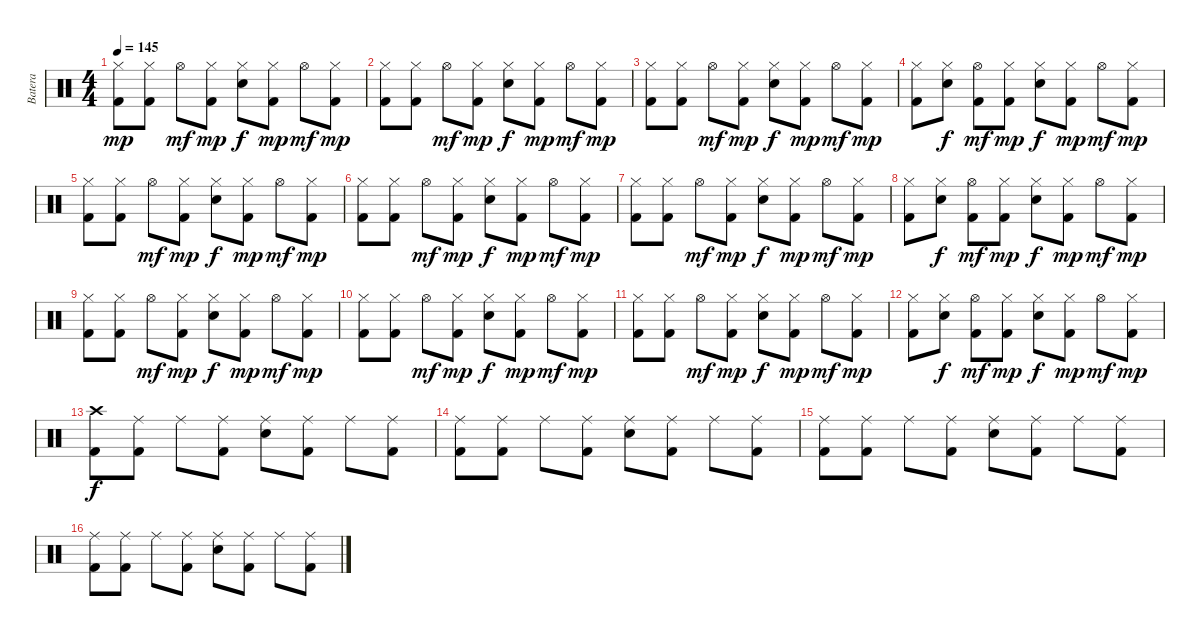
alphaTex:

\track ("Batera" "Batera") {instrument percussion}
\staff {score}
\articulation defaults
\ts (4 4)
\tempo 145
\clef neutral
\ks c
("Hi-Hat (closed)" "Kick (hit) 2").8{dy mp} ("Hi-Hat (closed)" "Kick (hit) 2").8 "Hi-Hat (open)".8{dy mf} ("Hi-Hat (closed)" "Kick (hit) 2").8{dy mp} ("Hi-Hat (closed)" "Electric Snare (hit)").8{dy f} ("Hi-Hat (closed)" "Kick (hit) 2").8{dy mp} "Hi-Hat (open)".8{dy mf} ("Hi-Hat (closed)" "Kick (hit) 2").8{dy mp} |
("Hi-Hat (closed)" "Kick (hit) 2").8 ("Hi-Hat (closed)" "Kick (hit) 2").8 "Hi-Hat (open)".8{dy mf} ("Hi-Hat (closed)" "Kick (hit) 2").8{dy mp} ("Hi-Hat (closed)" "Electric Snare (hit)").8{dy f} ("Hi-Hat (closed)" "Kick (hit) 2").8{dy mp} "Hi-Hat (open)".8{dy mf} ("Hi-Hat (closed)" "Kick (hit) 2").8{dy mp} |
("Hi-Hat (closed)" "Kick (hit) 2").8 ("Hi-Hat (closed)" "Kick (hit) 2").8 "Hi-Hat (open)".8{dy mf} ("Hi-Hat (closed)" "Kick (hit) 2").8{dy mp} ("Hi-Hat (closed)" "Electric Snare (hit)").8{dy f} ("Hi-Hat (closed)" "Kick (hit) 2").8{dy mp} "Hi-Hat (open)".8{dy mf} ("Hi-Hat (closed)" "Kick (hit) 2").8{dy mp} |
("Hi-Hat (closed)" "Kick (hit) 2").8 ("Hi-Hat (closed)" "Electric Snare (hit)").8{dy f} ("Hi-Hat (open)" "Kick (hit) 2").8{dy mf} ("Hi-Hat (closed)" "Kick (hit) 2").8{dy mp} ("Hi-Hat (closed)" "Electric Snare (hit)").8{dy f} ("Hi-Hat (closed)" "Kick (hit) 2").8{dy mp} "Hi-Hat (open)".8{dy mf} ("Hi-Hat (closed)" "Kick (hit) 2").8{dy mp} |
("Hi-Hat (closed)" "Kick (hit) 2").8 ("Hi-Hat (closed)" "Kick (hit) 2").8 "Hi-Hat (open)".8{dy mf} ("Hi-Hat (closed)" "Kick (hit) 2").8{dy mp} ("Hi-Hat (closed)" "Electric Snare (hit)").8{dy f} ("Hi-Hat (closed)" "Kick (hit) 2").8{dy mp} "Hi-Hat (open)".8{dy mf} ("Hi-Hat (closed)" "Kick (hit) 2").8{dy mp} |
("Hi-Hat (closed)" "Kick (hit) 2").8 ("Hi-Hat (closed)" "Kick (hit) 2").8 "Hi-Hat (open)".8{dy mf} ("Hi-Hat (closed)" "Kick (hit) 2").8{dy mp} ("Hi-Hat (closed)" "Electric Snare (hit)").8{dy f} ("Hi-Hat (closed)" "Kick (hit) 2").8{dy mp} "Hi-Hat (open)".8{dy mf} ("Hi-Hat (closed)" "Kick (hit) 2").8{dy mp} |
("Hi-Hat (closed)" "Kick (hit) 2").8 ("Hi-Hat (closed)" "Kick (hit) 2").8 "Hi-Hat (open)".8{dy mf} ("Hi-Hat (closed)" "Kick (hit) 2").8{dy mp} ("Hi-Hat (closed)" "Electric Snare (hit)").8{dy f} ("Hi-Hat (closed)" "Kick (hit) 2").8{dy mp} "Hi-Hat (open)".8{dy mf} ("Hi-Hat (closed)" "Kick (hit) 2").8{dy mp} |
("Hi-Hat (closed)" "Kick (hit) 2").8 ("Hi-Hat (closed)" "Electric Snare (hit)").8{dy f} ("Hi-Hat (open)" "Kick (hit) 2").8{dy mf} ("Hi-Hat (closed)" "Kick (hit) 2").8{dy mp} ("Hi-Hat (closed)" "Electric Snare (hit)").8{dy f} ("Hi-Hat (closed)" "Kick (hit) 2").8{dy mp} "Hi-Hat (open)".8{dy mf} ("Hi-Hat (closed)" "Kick (hit) 2").8{dy mp} |
("Hi-Hat (closed)" "Kick (hit) 2").8 ("Hi-Hat (closed)" "Kick (hit) 2").8 "Hi-Hat (open)".8{dy mf} ("Hi-Hat (closed)" "Kick (hit) 2").8{dy mp} ("Hi-Hat (closed)" "Electric Snare (hit)").8{dy f} ("Hi-Hat (closed)" "Kick (hit) 2").8{dy mp} "Hi-Hat (open)".8{dy mf} ("Hi-Hat (closed)" "Kick (hit) 2").8{dy mp} |
("Hi-Hat (closed)" "Kick (hit) 2").8 ("Hi-Hat (closed)" "Kick (hit) 2").8 "Hi-Hat (open)".8{dy mf} ("Hi-Hat (closed)" "Kick (hit) 2").8{dy mp} ("Hi-Hat (closed)" "Electric Snare (hit)").8{dy f} ("Hi-Hat (closed)" "Kick (hit) 2").8{dy mp} "Hi-Hat (open)".8{dy mf} ("Hi-Hat (closed)" "Kick (hit) 2").8{dy mp} |
("Hi-Hat (closed)" "Kick (hit) 2").8 ("Hi-Hat (closed)" "Kick (hit) 2").8 "Hi-Hat (open)".8{dy mf} ("Hi-Hat (closed)" "Kick (hit) 2").8{dy mp} ("Hi-Hat (closed)" "Electric Snare (hit)").8{dy f} ("Hi-Hat (closed)" "Kick (hit) 2").8{dy mp} "Hi-Hat (open)".8{dy mf} ("Hi-Hat (closed)" "Kick (hit) 2").8{dy mp} |
("Hi-Hat (closed)" "Kick (hit) 2").8 ("Hi-Hat (closed)" "Electric Snare (hit)").8{dy f} ("Hi-Hat (open)" "Kick (hit) 2").8{dy mf} ("Hi-Hat (closed)" "Kick (hit) 2").8{dy mp} ("Hi-Hat (closed)" "Electric Snare (hit)").8{dy f} ("Hi-Hat (closed)" "Kick (hit) 2").8{dy mp} "Hi-Hat (open)".8{dy mf} ("Hi-Hat (closed)" "Kick (hit) 2").8{dy mp} |
("Crash high (hit)" "Kick (hit) 2").8{dy f} ("Ride (middle)" "Kick (hit) 2").8 "Ride (middle)".8 ("Ride (middle)" "Kick (hit) 2").8 ("Ride (middle)" "Electric Snare (hit)").8 ("Ride (middle)" "Kick (hit) 2").8 "Ride (middle)".8 ("Ride (middle)" "Kick (hit) 2").8 |
("Ride (middle)" "Kick (hit) 2").8 ("Ride (middle)" "Kick (hit) 2").8 "Ride (middle)".8 ("Ride (middle)" "Kick (hit) 2").8 ("Ride (middle)" "Electric Snare (hit)").8 ("Ride (middle)" "Kick (hit) 2").8 "Ride (middle)".8 ("Ride (middle)" "Kick (hit) 2").8 |
("Ride (middle)" "Kick (hit) 2").8 ("Ride (middle)" "Kick (hit) 2").8 "Ride (middle)".8 ("Ride (middle)" "Kick (hit) 2").8 ("Ride (middle)" "Electric Snare (hit)").8 ("Ride (middle)" "Kick (hit) 2").8 "Ride (middle)".8 ("Ride (middle)" "Kick (hit) 2").8 |
("Ride (middle)" "Kick (hit) 2").8 ("Ride (middle)" "Kick (hit) 2").8 "Ride (middle)".8 ("Ride (middle)" "Kick (hit) 2").8 ("Ride (middle)" "Electric Snare (hit)").8 ("Ride (middle)" "Kick (hit) 2").8 "Ride (middle)".8 ("Ride (middle)" "Kick (hit) 2").8
